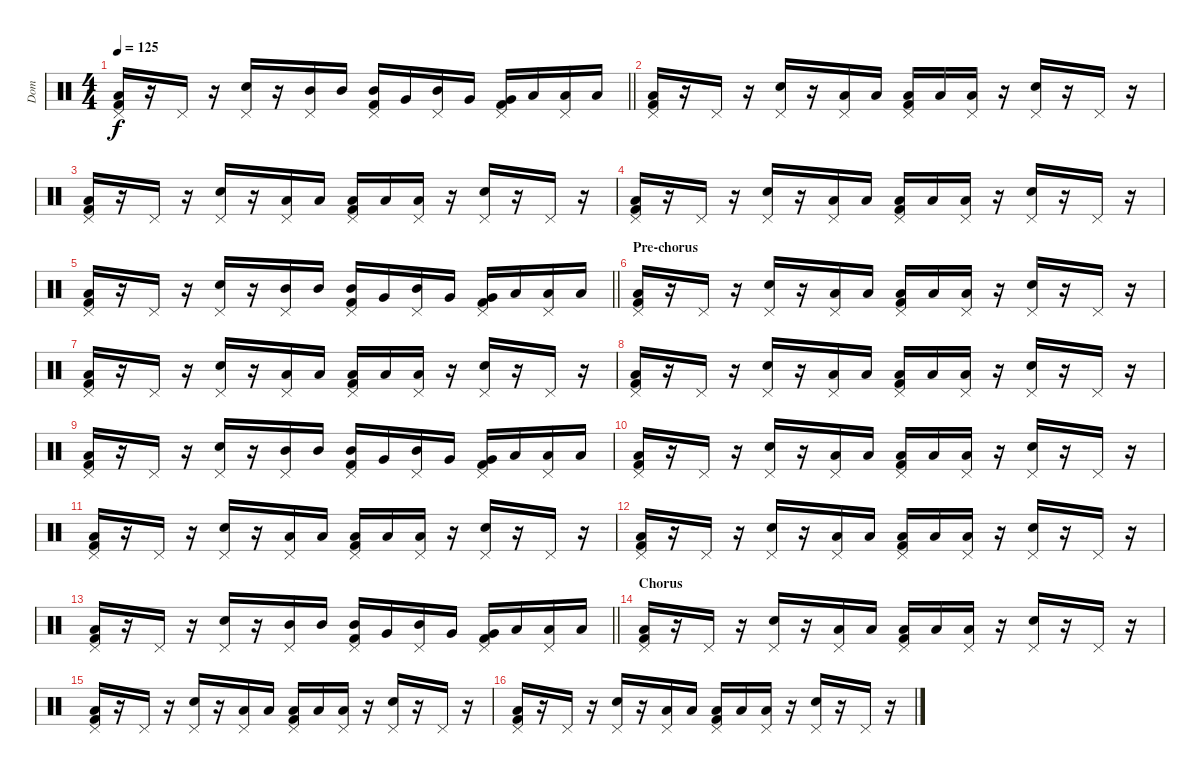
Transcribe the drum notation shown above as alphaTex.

\track ("Dom" "Dom") {instrument percussion}
\staff {score}
\articulation defaults
\ts (4 4)
\tempo 125
\clef neutral
\barLineRight lightlight
\ks c
("Low Floor Tom (hit)" "Pedal Hi-Hat (hit)" "Kick (hit) 2").16{dy f} r.16 "Pedal Hi-Hat (hit)".16 r.16 ("Snare (hit) 2" "Pedal Hi-Hat (hit)").16 r.16 ("Mid Tom (hit)" "Pedal Hi-Hat (hit)").16 "Mid Tom (hit)".16 ("Mid Tom (hit)" "Pedal Hi-Hat (hit)" "Kick (hit) 2").16 "Very Low Tom (hit)".16 ("Mid Tom (hit)" "Pedal Hi-Hat (hit)").16 "Very Low Tom (hit)".16 ("Very Low Tom (hit)" "Pedal Hi-Hat (hit)" "Kick (hit) 2").16 "Low Floor Tom (hit)".16 ("Low Floor Tom (hit)" "Pedal Hi-Hat (hit)").16 "Low Floor Tom (hit)".16 |
("Low Floor Tom (hit)" "Pedal Hi-Hat (hit)" "Kick (hit) 2").16 r.16 "Pedal Hi-Hat (hit)".16 r.16 ("Snare (hit) 2" "Pedal Hi-Hat (hit)").16 r.16 ("Low Floor Tom (hit)" "Pedal Hi-Hat (hit)").16 "Low Floor Tom (hit)".16 ("Low Floor Tom (hit)" "Pedal Hi-Hat (hit)" "Kick (hit) 2").16 "Low Floor Tom (hit)".16 ("Low Floor Tom (hit)" "Pedal Hi-Hat (hit)").16 r.16 ("Snare (hit) 2" "Pedal Hi-Hat (hit)").16 r.16 "Pedal Hi-Hat (hit)".16 r.16 |
("Low Floor Tom (hit)" "Pedal Hi-Hat (hit)" "Kick (hit) 2").16 r.16 "Pedal Hi-Hat (hit)".16 r.16 ("Snare (hit) 2" "Pedal Hi-Hat (hit)").16 r.16 ("Low Floor Tom (hit)" "Pedal Hi-Hat (hit)").16 "Low Floor Tom (hit)".16 ("Low Floor Tom (hit)" "Pedal Hi-Hat (hit)" "Kick (hit) 2").16 "Low Floor Tom (hit)".16 ("Low Floor Tom (hit)" "Pedal Hi-Hat (hit)").16 r.16 ("Snare (hit) 2" "Pedal Hi-Hat (hit)").16 r.16 "Pedal Hi-Hat (hit)".16 r.16 |
("Low Floor Tom (hit)" "Pedal Hi-Hat (hit)" "Kick (hit) 2").16 r.16 "Pedal Hi-Hat (hit)".16 r.16 ("Snare (hit) 2" "Pedal Hi-Hat (hit)").16 r.16 ("Low Floor Tom (hit)" "Pedal Hi-Hat (hit)").16 "Low Floor Tom (hit)".16 ("Low Floor Tom (hit)" "Pedal Hi-Hat (hit)" "Kick (hit) 2").16 "Low Floor Tom (hit)".16 ("Low Floor Tom (hit)" "Pedal Hi-Hat (hit)").16 r.16 ("Snare (hit) 2" "Pedal Hi-Hat (hit)").16 r.16 "Pedal Hi-Hat (hit)".16 r.16 |
\barLineRight lightlight
("Low Floor Tom (hit)" "Pedal Hi-Hat (hit)" "Kick (hit) 2").16 r.16 "Pedal Hi-Hat (hit)".16 r.16 ("Snare (hit) 2" "Pedal Hi-Hat (hit)").16 r.16 ("Mid Tom (hit)" "Pedal Hi-Hat (hit)").16 "Mid Tom (hit)".16 ("Mid Tom (hit)" "Pedal Hi-Hat (hit)" "Kick (hit) 2").16 "Very Low Tom (hit)".16 ("Mid Tom (hit)" "Pedal Hi-Hat (hit)").16 "Very Low Tom (hit)".16 ("Very Low Tom (hit)" "Pedal Hi-Hat (hit)" "Kick (hit) 2").16 "Low Floor Tom (hit)".16 ("Low Floor Tom (hit)" "Pedal Hi-Hat (hit)").16 "Low Floor Tom (hit)".16 |
\section ("" "Pre-chorus")
("Low Floor Tom (hit)" "Pedal Hi-Hat (hit)" "Kick (hit) 2").16 r.16 "Pedal Hi-Hat (hit)".16 r.16 ("Snare (hit) 2" "Pedal Hi-Hat (hit)").16 r.16 ("Low Floor Tom (hit)" "Pedal Hi-Hat (hit)").16 "Low Floor Tom (hit)".16 ("Low Floor Tom (hit)" "Pedal Hi-Hat (hit)" "Kick (hit) 2").16 "Low Floor Tom (hit)".16 ("Low Floor Tom (hit)" "Pedal Hi-Hat (hit)").16 r.16 ("Snare (hit) 2" "Pedal Hi-Hat (hit)").16 r.16 "Pedal Hi-Hat (hit)".16 r.16 |
("Low Floor Tom (hit)" "Pedal Hi-Hat (hit)" "Kick (hit) 2").16 r.16 "Pedal Hi-Hat (hit)".16 r.16 ("Snare (hit) 2" "Pedal Hi-Hat (hit)").16 r.16 ("Low Floor Tom (hit)" "Pedal Hi-Hat (hit)").16 "Low Floor Tom (hit)".16 ("Low Floor Tom (hit)" "Pedal Hi-Hat (hit)" "Kick (hit) 2").16 "Low Floor Tom (hit)".16 ("Low Floor Tom (hit)" "Pedal Hi-Hat (hit)").16 r.16 ("Snare (hit) 2" "Pedal Hi-Hat (hit)").16 r.16 "Pedal Hi-Hat (hit)".16 r.16 |
("Low Floor Tom (hit)" "Pedal Hi-Hat (hit)" "Kick (hit) 2").16 r.16 "Pedal Hi-Hat (hit)".16 r.16 ("Snare (hit) 2" "Pedal Hi-Hat (hit)").16 r.16 ("Low Floor Tom (hit)" "Pedal Hi-Hat (hit)").16 "Low Floor Tom (hit)".16 ("Low Floor Tom (hit)" "Pedal Hi-Hat (hit)" "Kick (hit) 2").16 "Low Floor Tom (hit)".16 ("Low Floor Tom (hit)" "Pedal Hi-Hat (hit)").16 r.16 ("Snare (hit) 2" "Pedal Hi-Hat (hit)").16 r.16 "Pedal Hi-Hat (hit)".16 r.16 |
("Low Floor Tom (hit)" "Pedal Hi-Hat (hit)" "Kick (hit) 2").16 r.16 "Pedal Hi-Hat (hit)".16 r.16 ("Snare (hit) 2" "Pedal Hi-Hat (hit)").16 r.16 ("Mid Tom (hit)" "Pedal Hi-Hat (hit)").16 "Mid Tom (hit)".16 ("Mid Tom (hit)" "Pedal Hi-Hat (hit)" "Kick (hit) 2").16 "Very Low Tom (hit)".16 ("Mid Tom (hit)" "Pedal Hi-Hat (hit)").16 "Very Low Tom (hit)".16 ("Very Low Tom (hit)" "Pedal Hi-Hat (hit)" "Kick (hit) 2").16 "Low Floor Tom (hit)".16 ("Low Floor Tom (hit)" "Pedal Hi-Hat (hit)").16 "Low Floor Tom (hit)".16 |
("Low Floor Tom (hit)" "Pedal Hi-Hat (hit)" "Kick (hit) 2").16 r.16 "Pedal Hi-Hat (hit)".16 r.16 ("Snare (hit) 2" "Pedal Hi-Hat (hit)").16 r.16 ("Low Floor Tom (hit)" "Pedal Hi-Hat (hit)").16 "Low Floor Tom (hit)".16 ("Low Floor Tom (hit)" "Pedal Hi-Hat (hit)" "Kick (hit) 2").16 "Low Floor Tom (hit)".16 ("Low Floor Tom (hit)" "Pedal Hi-Hat (hit)").16 r.16 ("Snare (hit) 2" "Pedal Hi-Hat (hit)").16 r.16 "Pedal Hi-Hat (hit)".16 r.16 |
("Low Floor Tom (hit)" "Pedal Hi-Hat (hit)" "Kick (hit) 2").16 r.16 "Pedal Hi-Hat (hit)".16 r.16 ("Snare (hit) 2" "Pedal Hi-Hat (hit)").16 r.16 ("Low Floor Tom (hit)" "Pedal Hi-Hat (hit)").16 "Low Floor Tom (hit)".16 ("Low Floor Tom (hit)" "Pedal Hi-Hat (hit)" "Kick (hit) 2").16 "Low Floor Tom (hit)".16 ("Low Floor Tom (hit)" "Pedal Hi-Hat (hit)").16 r.16 ("Snare (hit) 2" "Pedal Hi-Hat (hit)").16 r.16 "Pedal Hi-Hat (hit)".16 r.16 |
("Low Floor Tom (hit)" "Pedal Hi-Hat (hit)" "Kick (hit) 2").16 r.16 "Pedal Hi-Hat (hit)".16 r.16 ("Snare (hit) 2" "Pedal Hi-Hat (hit)").16 r.16 ("Low Floor Tom (hit)" "Pedal Hi-Hat (hit)").16 "Low Floor Tom (hit)".16 ("Low Floor Tom (hit)" "Pedal Hi-Hat (hit)" "Kick (hit) 2").16 "Low Floor Tom (hit)".16 ("Low Floor Tom (hit)" "Pedal Hi-Hat (hit)").16 r.16 ("Snare (hit) 2" "Pedal Hi-Hat (hit)").16 r.16 "Pedal Hi-Hat (hit)".16 r.16 |
\barLineRight lightlight
("Low Floor Tom (hit)" "Pedal Hi-Hat (hit)" "Kick (hit) 2").16 r.16 "Pedal Hi-Hat (hit)".16 r.16 ("Snare (hit) 2" "Pedal Hi-Hat (hit)").16 r.16 ("Mid Tom (hit)" "Pedal Hi-Hat (hit)").16 "Mid Tom (hit)".16 ("Mid Tom (hit)" "Pedal Hi-Hat (hit)" "Kick (hit) 2").16 "Very Low Tom (hit)".16 ("Mid Tom (hit)" "Pedal Hi-Hat (hit)").16 "Very Low Tom (hit)".16 ("Very Low Tom (hit)" "Pedal Hi-Hat (hit)" "Kick (hit) 2").16 "Low Floor Tom (hit)".16 ("Low Floor Tom (hit)" "Pedal Hi-Hat (hit)").16 "Low Floor Tom (hit)".16 |
\section ("" "Chorus")
("Low Floor Tom (hit)" "Pedal Hi-Hat (hit)" "Kick (hit) 2").16 r.16 "Pedal Hi-Hat (hit)".16 r.16 ("Snare (hit) 2" "Pedal Hi-Hat (hit)").16 r.16 ("Low Floor Tom (hit)" "Pedal Hi-Hat (hit)").16 "Low Floor Tom (hit)".16 ("Low Floor Tom (hit)" "Pedal Hi-Hat (hit)" "Kick (hit) 2").16 "Low Floor Tom (hit)".16 ("Low Floor Tom (hit)" "Pedal Hi-Hat (hit)").16 r.16 ("Snare (hit) 2" "Pedal Hi-Hat (hit)").16 r.16 "Pedal Hi-Hat (hit)".16 r.16 |
("Low Floor Tom (hit)" "Pedal Hi-Hat (hit)" "Kick (hit) 2").16 r.16 "Pedal Hi-Hat (hit)".16 r.16 ("Snare (hit) 2" "Pedal Hi-Hat (hit)").16 r.16 ("Low Floor Tom (hit)" "Pedal Hi-Hat (hit)").16 "Low Floor Tom (hit)".16 ("Low Floor Tom (hit)" "Pedal Hi-Hat (hit)" "Kick (hit) 2").16 "Low Floor Tom (hit)".16 ("Low Floor Tom (hit)" "Pedal Hi-Hat (hit)").16 r.16 ("Snare (hit) 2" "Pedal Hi-Hat (hit)").16 r.16 "Pedal Hi-Hat (hit)".16 r.16 |
("Low Floor Tom (hit)" "Pedal Hi-Hat (hit)" "Kick (hit) 2").16 r.16 "Pedal Hi-Hat (hit)".16 r.16 ("Snare (hit) 2" "Pedal Hi-Hat (hit)").16 r.16 ("Low Floor Tom (hit)" "Pedal Hi-Hat (hit)").16 "Low Floor Tom (hit)".16 ("Low Floor Tom (hit)" "Pedal Hi-Hat (hit)" "Kick (hit) 2").16 "Low Floor Tom (hit)".16 ("Low Floor Tom (hit)" "Pedal Hi-Hat (hit)").16 r.16 ("Snare (hit) 2" "Pedal Hi-Hat (hit)").16 r.16 "Pedal Hi-Hat (hit)".16 r.16
